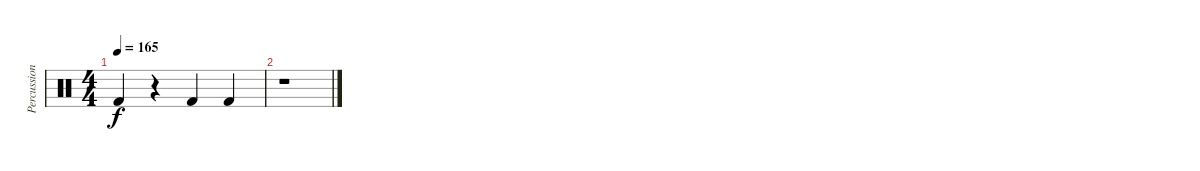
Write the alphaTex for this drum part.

\track ("Percussion" "Percussion") {instrument percussion}
\staff {score}
\articulation defaults
\ts (4 4)
\tempo 165
\clef neutral
\ks c "Kick (hit) 2".4{dy f}
r.4 "Kick (hit) 2".4 "Kick (hit) 2".4 |
r.1
